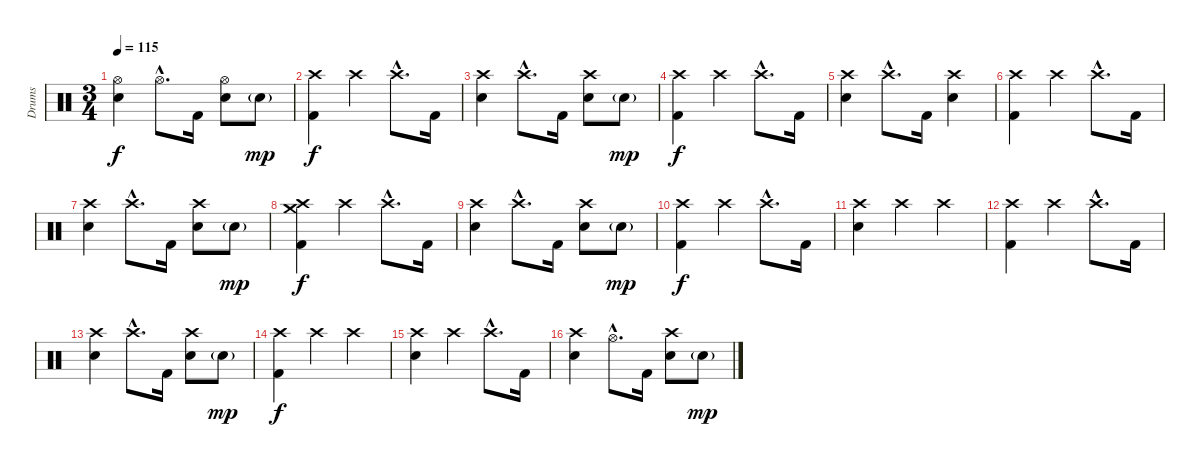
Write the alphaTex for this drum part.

\track ("Drums" "Drums") {instrument percussion}
\staff {score}
\articulation defaults
\ts (3 4)
\tempo 115
\clef neutral
\ks c
("Hi-Hat (open)" "Electric Snare (hit)").4{dy f} "Hi-Hat (open)"{hac}.8{d} "Kick (hit) 2".16 ("Hi-Hat (open)" "Electric Snare (hit)").8 "Electric Snare (hit)"{g}.8{dy mp} |
\section ("" "")
("Crash high (hit)" "Kick (hit) 2").4{dy f} "Crash high (hit)".4 "Crash high (hit)"{hac}.8{d} "Kick (hit) 2".16 |
("Crash high (hit)" "Electric Snare (hit)").4 "Crash high (hit)"{hac}.8{d} "Kick (hit) 2".16 ("Crash high (hit)" "Electric Snare (hit)").8 "Electric Snare (hit)"{g}.8{dy mp} |
("Crash high (hit)" "Kick (hit) 2").4{dy f} "Crash high (hit)".4 "Crash high (hit)"{hac}.8{d} "Kick (hit) 2".16 |
("Crash high (hit)" "Electric Snare (hit)").4 "Crash high (hit)"{hac}.8{d} "Kick (hit) 2".16 ("Crash high (hit)" "Electric Snare (hit)").4 |
("Crash high (hit)" "Kick (hit) 2").4 "Crash high (hit)".4 "Crash high (hit)"{hac}.8{d} "Kick (hit) 2".16 |
("Crash high (hit)" "Electric Snare (hit)").4 "Crash high (hit)"{hac}.8{d} "Kick (hit) 2".16 ("Crash high (hit)" "Electric Snare (hit)").8 "Electric Snare (hit)"{g}.8{dy mp} |
("Crash high (hit)" "Crash medium (hit)" "Kick (hit) 2").4{dy f} "Crash high (hit)".4 "Crash high (hit)"{hac}.8{d} "Kick (hit) 2".16 |
("Crash high (hit)" "Electric Snare (hit)").4 "Crash high (hit)"{hac}.8{d} "Kick (hit) 2".16 ("Crash high (hit)" "Electric Snare (hit)").8 "Electric Snare (hit)"{g}.8{dy mp} |
("Crash high (hit)" "Kick (hit) 2").4{dy f} "Crash high (hit)".4 "Crash high (hit)"{hac}.8{d} "Kick (hit) 2".16 |
("Crash high (hit)" "Electric Snare (hit)").4 "Crash high (hit)".4 "Crash high (hit)".4 |
("Crash high (hit)" "Kick (hit) 2").4 "Crash high (hit)".4 "Crash high (hit)"{hac}.8{d} "Kick (hit) 2".16 |
("Crash high (hit)" "Electric Snare (hit)").4 "Crash high (hit)"{hac}.8{d} "Kick (hit) 2".16 ("Crash high (hit)" "Electric Snare (hit)").8 "Electric Snare (hit)"{g}.8{dy mp} |
("Crash high (hit)" "Kick (hit) 2").4{dy f} "Crash high (hit)".4 "Crash high (hit)".4 |
("Crash high (hit)" "Electric Snare (hit)").4 "Crash high (hit)".4 "Crash high (hit)"{hac}.8{d} "Kick (hit) 2".16 |
("Crash high (hit)" "Electric Snare (hit)").4 "Hi-Hat (open)"{hac}.8{d} "Kick (hit) 2".16 ("Crash high (hit)" "Electric Snare (hit)").8 "Electric Snare (hit)"{g}.8{dy mp}
